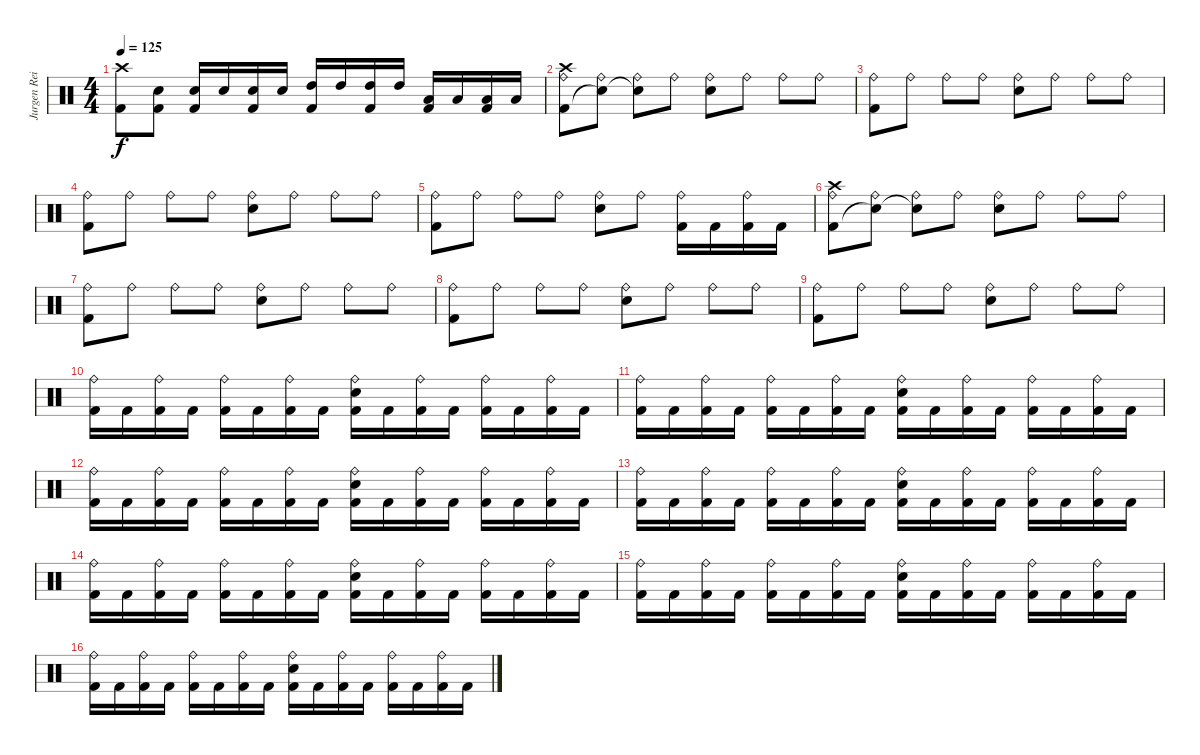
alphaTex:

\track ("Jurgen Reil" "Jurgen Rei") {instrument percussion}
\staff {score}
\articulation defaults
\ts (4 4)
\tempo 125
\clef neutral
\ks c
("Crash high (hit)" "Kick (hit) 2").8{dy f} ("Snare (hit) 2" "Kick (hit) 2").8 ("Kick (hit) 2" "Snare (hit) 2").16 "Snare (hit) 2".16 ("Kick (hit) 2" "Snare (hit) 2").16 "Snare (hit) 2".16 ("Kick (hit) 2" "High Tom (hit)").16 "High Tom (hit)".16 ("Kick (hit) 2" "High Tom (hit)").16 "High Tom (hit)".16 ("Kick (hit) 2" "Low Tom (hit)").16 "Low Tom (hit)".16 ("Kick (hit) 2" "Low Tom (hit)").16 "Low Tom (hit)".16 |
("Ride (bell)" "Kick (hit) 2" "Crash high (hit)").8 ("Ride (bell)" "Snare (hit)"{t}).8 ("Ride (bell)" "Snare (hit)"{t}).8 "Ride (bell)".8 ("Ride (bell)" "Snare (hit) 2").8 "Ride (bell)".8 "Ride (bell)".8 "Ride (bell)".8 |
("Ride (bell)" "Kick (hit) 2").8 "Ride (bell)".8 "Ride (bell)".8 "Ride (bell)".8 ("Ride (bell)" "Snare (hit) 2").8 "Ride (bell)".8 "Ride (bell)".8 "Ride (bell)".8 |
("Ride (bell)" "Kick (hit) 2").8 "Ride (bell)".8 "Ride (bell)".8 "Ride (bell)".8 ("Ride (bell)" "Snare (hit) 2").8 "Ride (bell)".8 "Ride (bell)".8 "Ride (bell)".8 |
("Ride (bell)" "Kick (hit) 2").8 "Ride (bell)".8 "Ride (bell)".8 "Ride (bell)".8 ("Ride (bell)" "Snare (hit) 2").8 "Ride (bell)".8 ("Ride (bell)" "Kick (hit) 2").16 "Kick (hit) 2".16 ("Ride (bell)" "Kick (hit) 2").16 "Kick (hit) 2".16 |
("Ride (bell)" "Kick (hit) 2" "Crash high (hit)").8 ("Ride (bell)" "Snare (hit)"{t}).8 ("Ride (bell)" "Snare (hit)"{t}).8 "Ride (bell)".8 ("Ride (bell)" "Snare (hit) 2").8 "Ride (bell)".8 "Ride (bell)".8 "Ride (bell)".8 |
("Ride (bell)" "Kick (hit) 2").8 "Ride (bell)".8 "Ride (bell)".8 "Ride (bell)".8 ("Ride (bell)" "Snare (hit) 2").8 "Ride (bell)".8 "Ride (bell)".8 "Ride (bell)".8 |
("Ride (bell)" "Kick (hit) 2").8 "Ride (bell)".8 "Ride (bell)".8 "Ride (bell)".8 ("Ride (bell)" "Snare (hit) 2").8 "Ride (bell)".8 "Ride (bell)".8 "Ride (bell)".8 |
("Ride (bell)" "Kick (hit) 2").8 "Ride (bell)".8 "Ride (bell)".8 "Ride (bell)".8 ("Ride (bell)" "Snare (hit) 2").8 "Ride (bell)".8 "Ride (bell)".8 "Ride (bell)".8 |
("Ride (bell)" "Kick (hit) 2").16 "Kick (hit) 2".16 ("Ride (bell)" "Kick (hit) 2").16 "Kick (hit) 2".16 ("Ride (bell)" "Kick (hit) 2").16 "Kick (hit) 2".16 ("Ride (bell)" "Kick (hit) 2").16 "Kick (hit) 2".16 ("Ride (bell)" "Snare (hit) 2" "Kick (hit) 2").16 "Kick (hit) 2".16 ("Ride (bell)" "Kick (hit) 2").16 "Kick (hit) 2".16 ("Ride (bell)" "Kick (hit) 2").16 "Kick (hit) 2".16 ("Ride (bell)" "Kick (hit) 2").16 "Kick (hit) 2".16 |
("Ride (bell)" "Kick (hit) 2").16 "Kick (hit) 2".16 ("Ride (bell)" "Kick (hit) 2").16 "Kick (hit) 2".16 ("Ride (bell)" "Kick (hit) 2").16 "Kick (hit) 2".16 ("Ride (bell)" "Kick (hit) 2").16 "Kick (hit) 2".16 ("Ride (bell)" "Snare (hit) 2" "Kick (hit) 2").16 "Kick (hit) 2".16 ("Ride (bell)" "Kick (hit) 2").16 "Kick (hit) 2".16 ("Ride (bell)" "Kick (hit) 2").16 "Kick (hit) 2".16 ("Ride (bell)" "Kick (hit) 2").16 "Kick (hit) 2".16 |
("Ride (bell)" "Kick (hit) 2").16 "Kick (hit) 2".16 ("Ride (bell)" "Kick (hit) 2").16 "Kick (hit) 2".16 ("Ride (bell)" "Kick (hit) 2").16 "Kick (hit) 2".16 ("Ride (bell)" "Kick (hit) 2").16 "Kick (hit) 2".16 ("Ride (bell)" "Snare (hit) 2" "Kick (hit) 2").16 "Kick (hit) 2".16 ("Ride (bell)" "Kick (hit) 2").16 "Kick (hit) 2".16 ("Ride (bell)" "Kick (hit) 2").16 "Kick (hit) 2".16 ("Ride (bell)" "Kick (hit) 2").16 "Kick (hit) 2".16 |
("Ride (bell)" "Kick (hit) 2").16 "Kick (hit) 2".16 ("Ride (bell)" "Kick (hit) 2").16 "Kick (hit) 2".16 ("Ride (bell)" "Kick (hit) 2").16 "Kick (hit) 2".16 ("Ride (bell)" "Kick (hit) 2").16 "Kick (hit) 2".16 ("Ride (bell)" "Snare (hit) 2" "Kick (hit) 2").16 "Kick (hit) 2".16 ("Ride (bell)" "Kick (hit) 2").16 "Kick (hit) 2".16 ("Ride (bell)" "Kick (hit) 2").16 "Kick (hit) 2".16 ("Ride (bell)" "Kick (hit) 2").16 "Kick (hit) 2".16 |
("Ride (bell)" "Kick (hit) 2").16 "Kick (hit) 2".16 ("Ride (bell)" "Kick (hit) 2").16 "Kick (hit) 2".16 ("Ride (bell)" "Kick (hit) 2").16 "Kick (hit) 2".16 ("Ride (bell)" "Kick (hit) 2").16 "Kick (hit) 2".16 ("Ride (bell)" "Snare (hit) 2" "Kick (hit) 2").16 "Kick (hit) 2".16 ("Ride (bell)" "Kick (hit) 2").16 "Kick (hit) 2".16 ("Ride (bell)" "Kick (hit) 2").16 "Kick (hit) 2".16 ("Ride (bell)" "Kick (hit) 2").16 "Kick (hit) 2".16 |
("Ride (bell)" "Kick (hit) 2").16 "Kick (hit) 2".16 ("Ride (bell)" "Kick (hit) 2").16 "Kick (hit) 2".16 ("Ride (bell)" "Kick (hit) 2").16 "Kick (hit) 2".16 ("Ride (bell)" "Kick (hit) 2").16 "Kick (hit) 2".16 ("Ride (bell)" "Snare (hit) 2" "Kick (hit) 2").16 "Kick (hit) 2".16 ("Ride (bell)" "Kick (hit) 2").16 "Kick (hit) 2".16 ("Ride (bell)" "Kick (hit) 2").16 "Kick (hit) 2".16 ("Ride (bell)" "Kick (hit) 2").16 "Kick (hit) 2".16 |
("Ride (bell)" "Kick (hit) 2").16 "Kick (hit) 2".16 ("Ride (bell)" "Kick (hit) 2").16 "Kick (hit) 2".16 ("Ride (bell)" "Kick (hit) 2").16 "Kick (hit) 2".16 ("Ride (bell)" "Kick (hit) 2").16 "Kick (hit) 2".16 ("Ride (bell)" "Snare (hit) 2" "Kick (hit) 2").16 "Kick (hit) 2".16 ("Ride (bell)" "Kick (hit) 2").16 "Kick (hit) 2".16 ("Ride (bell)" "Kick (hit) 2").16 "Kick (hit) 2".16 ("Ride (bell)" "Kick (hit) 2").16 "Kick (hit) 2".16
